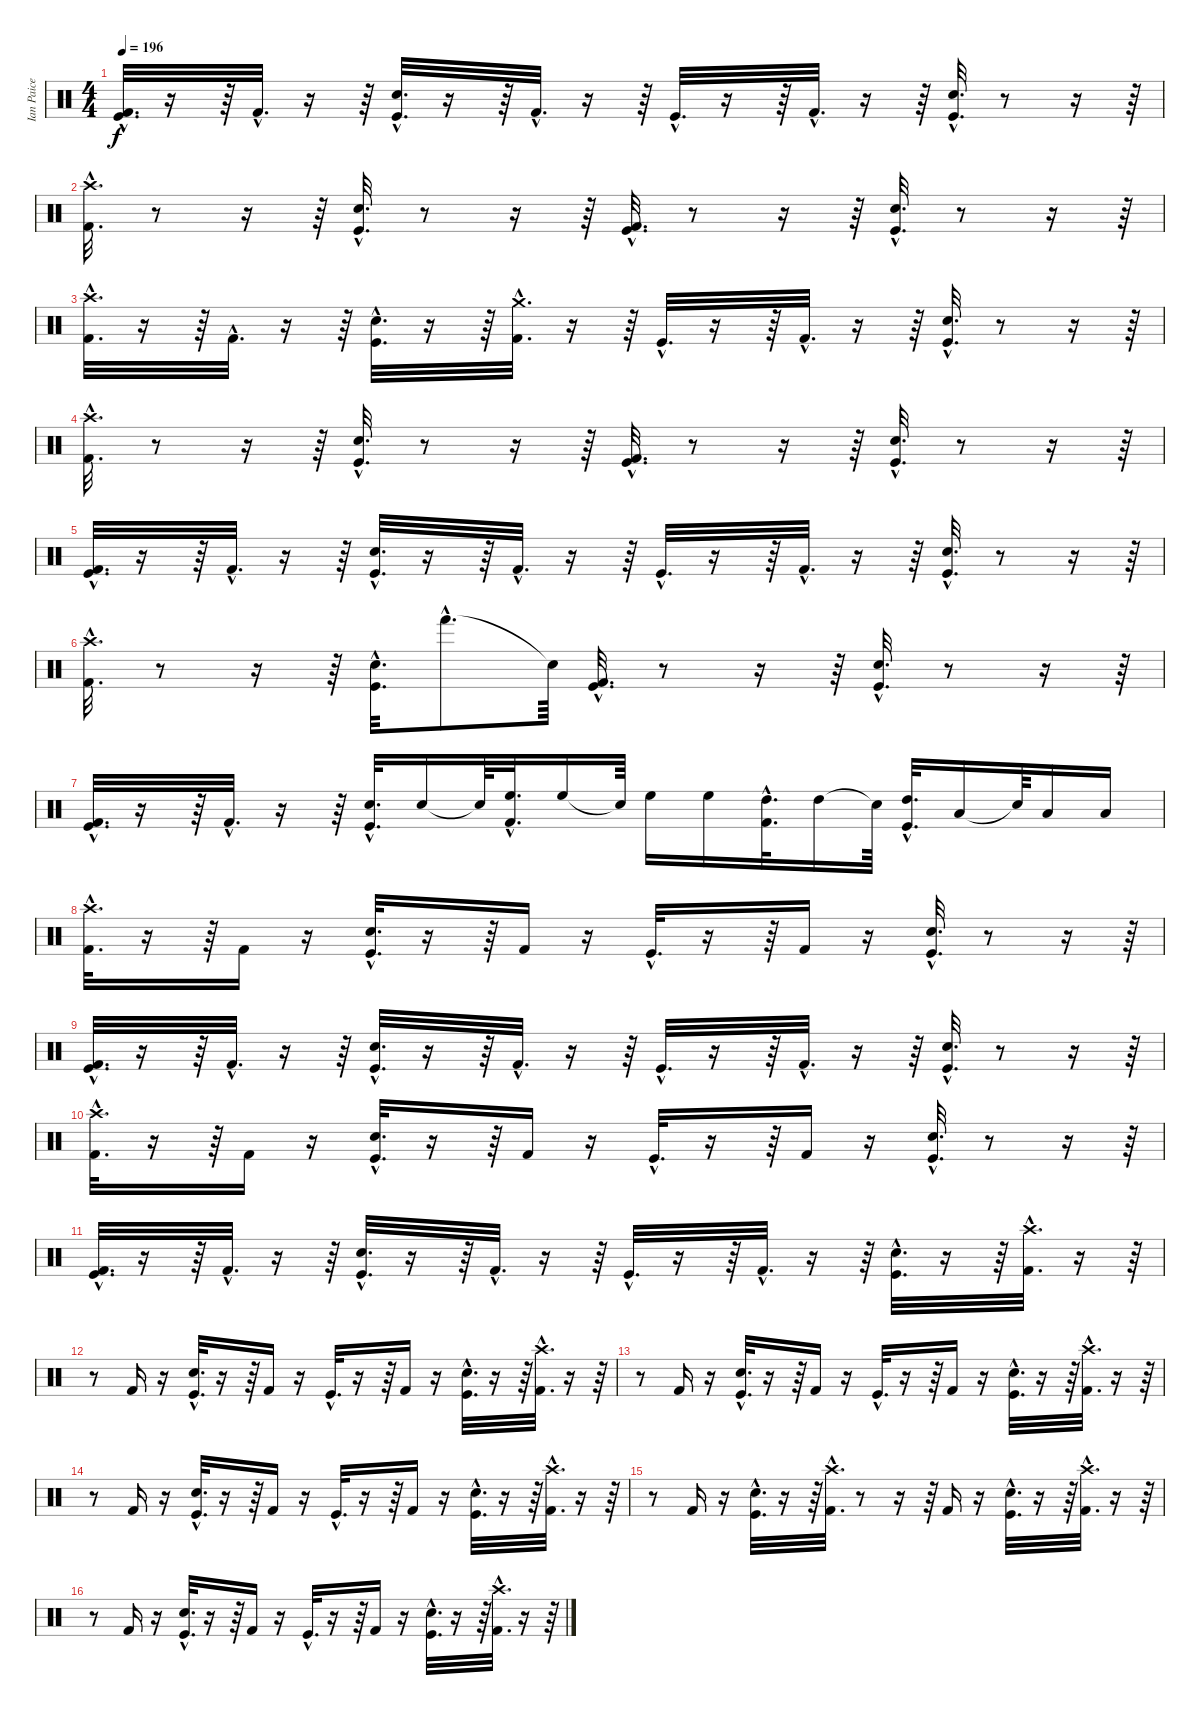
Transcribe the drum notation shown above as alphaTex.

\track ("Ian Paice" "Ian Paice") {instrument percussion}
\staff {score}
\articulation defaults
\ts (4 4)
\tempo 196
\clef neutral
\ks c
("Kick (hit)"{hac} "Kick (hit) 2"{hac}).32{d dy f} r.16 r.64 "Kick (hit) 2"{hac}.32{d} r.16 r.64 ("Snare (hit) 2"{hac} "Kick (hit)"{hac}).32{d} r.16 r.64 "Kick (hit) 2"{hac}.32{d} r.16 r.64 "Kick (hit)"{hac}.32{d} r.16 r.64 "Kick (hit) 2"{hac}.32{d} r.16 r.64 ("Snare (hit) 2"{hac} "Kick (hit)"{hac}).32{d} r.8 r.16 r.64 |
("Kick (hit) 2"{hac} "Crash high (hit)"{hac}).32{d} r.8 r.16 r.64 ("Kick (hit)"{hac} "Snare (hit) 2"{hac}).32{d} r.8 r.16 r.64 ("Kick (hit)"{hac} "Kick (hit) 2"{hac}).32{d} r.8 r.16 r.64 ("Kick (hit)"{hac} "Snare (hit) 2"{hac}).32{d} r.8 r.16 r.64 |
("Crash high (hit)"{hac} "Kick (hit) 2"{hac}).32{d} r.16 r.64 "Kick (hit) 2"{hac}.32{d} r.16 r.64 ("Kick (hit)"{hac} "Snare (hit) 2"{hac}).32{d} r.16 r.64 ("Crash medium (hit)"{hac} "Kick (hit) 2"{hac}).32{d} r.16 r.64 "Kick (hit)"{hac}.32{d} r.16 r.64 "Kick (hit) 2"{hac}.32{d} r.16 r.64 ("Kick (hit)"{hac} "Snare (hit) 2"{hac}).32{d} r.8 r.16 r.64 |
("Kick (hit) 2"{hac} "Crash high (hit)"{hac}).32{d} r.8 r.16 r.64 ("Kick (hit)"{hac} "Snare (hit) 2"{hac}).32{d} r.8 r.16 r.64 ("Kick (hit)"{hac} "Kick (hit) 2"{hac}).32{d} r.8 r.16 r.64 ("Kick (hit)"{hac} "Snare (hit) 2"{hac}).32{d} r.8 r.16 r.64 |
("Kick (hit)"{hac} "Kick (hit) 2"{hac}).32{d} r.16 r.64 "Kick (hit) 2"{hac}.32{d} r.16 r.64 ("Snare (hit) 2"{hac} "Kick (hit)"{hac}).32{d} r.16 r.64 "Kick (hit) 2"{hac}.32{d} r.16 r.64 "Kick (hit)"{hac}.32{d} r.16 r.64 "Kick (hit) 2"{hac}.32{d} r.16 r.64 ("Snare (hit) 2"{hac} "Kick (hit)"{hac}).32{d} r.8 r.16 r.64 |
("Kick (hit) 2"{hac} "Crash high (hit)"{hac}).32{d} r.8 r.16 r.64 ("Kick (hit)"{hac} "Snare (hit) 2"{hac}).32{d} "Hand (hit)"{hac}.8{d} "Snare (hit)"{t}.64 ("Kick (hit)"{hac} "Kick (hit) 2"{hac}).32{d} r.8 r.16 r.64 ("Kick (hit)"{hac} "Snare (hit) 2"{hac}).32{d} r.8 r.16 r.64 |
("Kick (hit)"{hac} "Kick (hit) 2"{hac}).32{d} r.16 r.64 "Kick (hit) 2"{hac}.32{d} r.16 r.64 ("Snare (hit) 2"{hac} "Kick (hit)"{hac}).32{d} "Snare (hit) 2".16 "Snare (hit)"{t}.64 ("High Floor Tom (hit)"{hac} "Kick (hit) 2"{hac}).32{d} "High Floor Tom (hit)".16 "Snare (hit)"{t}.64 "High Floor Tom (hit)".16 "High Floor Tom (hit)".16 ("High Tom (hit)"{hac} "Kick (hit) 2"{hac}).32{d} "High Tom (hit)".16 "Snare (hit)"{t}.64 ("Kick (hit)"{hac} "High Tom (hit)"{hac}).32{d} "Low Tom (hit)".16 "Snare (hit)"{t}.64 "Low Tom (hit)".16 "Low Floor Tom (hit)".16 |
("Kick (hit) 2"{hac} "Crash high (hit)"{hac}).32{d} r.16 r.64 "Kick (hit) 2".16 r.16 ("Kick (hit)"{hac} "Snare (hit) 2"{hac}).32{d} r.16 r.64 "Kick (hit) 2".16 r.16 "Kick (hit)"{hac}.32{d} r.16 r.64 "Kick (hit) 2".16 r.16 ("Kick (hit)"{hac} "Snare (hit) 2"{hac}).32{d} r.8 r.16 r.64 |
("Kick (hit)"{hac} "Kick (hit) 2"{hac}).32{d} r.16 r.64 "Kick (hit) 2"{hac}.32{d} r.16 r.64 ("Snare (hit) 2"{hac} "Kick (hit)"{hac}).32{d} r.16 r.64 "Kick (hit) 2"{hac}.32{d} r.16 r.64 "Kick (hit)"{hac}.32{d} r.16 r.64 "Kick (hit) 2"{hac}.32{d} r.16 r.64 ("Snare (hit) 2"{hac} "Kick (hit)"{hac}).32{d} r.8 r.16 r.64 |
("Kick (hit) 2"{hac} "Crash high (hit)"{hac}).32{d} r.16 r.64 "Kick (hit) 2".16 r.16 ("Kick (hit)"{hac} "Snare (hit) 2"{hac}).32{d} r.16 r.64 "Kick (hit) 2".16 r.16 "Kick (hit)"{hac}.32{d} r.16 r.64 "Kick (hit) 2".16 r.16 ("Kick (hit)"{hac} "Snare (hit) 2"{hac}).32{d} r.8 r.16 r.64 |
("Kick (hit)"{hac} "Kick (hit) 2"{hac}).32{d} r.16 r.64 "Kick (hit) 2"{hac}.32{d} r.16 r.64 ("Snare (hit) 2"{hac} "Kick (hit)"{hac}).32{d} r.16 r.64 "Kick (hit) 2"{hac}.32{d} r.16 r.64 "Kick (hit)"{hac}.32{d} r.16 r.64 "Kick (hit) 2"{hac}.32{d} r.16 r.64 ("Snare (hit) 2"{hac} "Kick (hit)"{hac}).32{d} r.16 r.64 ("Kick (hit) 2"{hac} "Crash high (hit)"{hac}).32{d} r.16 r.64 |
r.8 "Kick (hit) 2".16 r.16 ("Kick (hit)"{hac} "Snare (hit) 2"{hac}).32{d} r.16 r.64 "Kick (hit) 2".16 r.16 "Kick (hit)"{hac}.32{d} r.16 r.64 "Kick (hit) 2".16 r.16 ("Kick (hit)"{hac} "Snare (hit) 2"{hac}).32{d} r.16 r.64 ("Kick (hit) 2"{hac} "Crash high (hit)"{hac}).32{d} r.16 r.64 |
r.8 "Kick (hit) 2".16 r.16 ("Kick (hit)"{hac} "Snare (hit) 2"{hac}).32{d} r.16 r.64 "Kick (hit) 2".16 r.16 "Kick (hit)"{hac}.32{d} r.16 r.64 "Kick (hit) 2".16 r.16 ("Kick (hit)"{hac} "Snare (hit) 2"{hac}).32{d} r.16 r.64 ("Kick (hit) 2"{hac} "Crash high (hit)"{hac}).32{d} r.16 r.64 |
r.8 "Kick (hit) 2".16 r.16 ("Kick (hit)"{hac} "Snare (hit) 2"{hac}).32{d} r.16 r.64 "Kick (hit) 2".16 r.16 "Kick (hit)"{hac}.32{d} r.16 r.64 "Kick (hit) 2".16 r.16 ("Kick (hit)"{hac} "Snare (hit) 2"{hac}).32{d} r.16 r.64 ("Kick (hit) 2"{hac} "Crash high (hit)"{hac}).32{d} r.16 r.64 |
r.8 "Kick (hit) 2".16 r.16 ("Kick (hit)"{hac} "Snare (hit) 2"{hac}).32{d} r.16 r.64 ("Kick (hit) 2"{hac} "Crash high (hit)"{hac}).32{d} r.8 r.16 r.64 "Kick (hit) 2".16 r.16 ("Kick (hit)"{hac} "Snare (hit) 2"{hac}).32{d} r.16 r.64 ("Kick (hit) 2"{hac} "Crash high (hit)"{hac}).32{d} r.16 r.64 |
r.8 "Kick (hit) 2".16 r.16 ("Kick (hit)"{hac} "Snare (hit) 2"{hac}).32{d} r.16 r.64 "Kick (hit) 2".16 r.16 "Kick (hit)"{hac}.32{d} r.16 r.64 "Kick (hit) 2".16 r.16 ("Kick (hit)"{hac} "Snare (hit) 2"{hac}).32{d} r.16 r.64 ("Kick (hit) 2"{hac} "Crash high (hit)"{hac}).32{d} r.16 r.64
